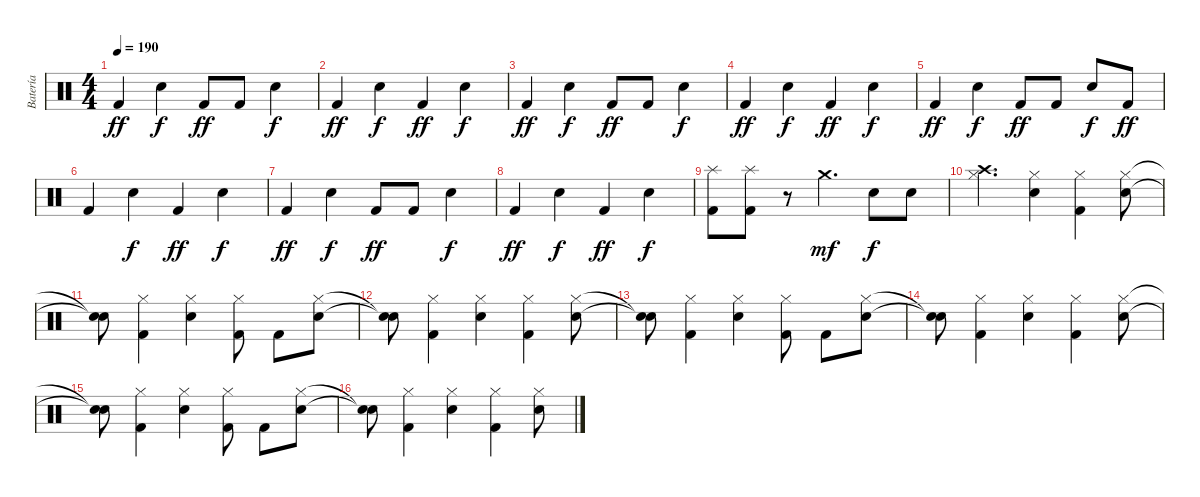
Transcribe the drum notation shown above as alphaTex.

\track ("Batería" "Batería") {instrument percussion}
\staff {score}
\articulation defaults
\ts (4 4)
\tempo 190
\clef neutral
\ks c "Kick (hit) 2".4{dy ff} "Electric Snare (hit)".4{dy f} "Kick (hit) 2".8{dy ff} "Kick (hit) 2".8 "Electric Snare (hit)".4{dy f}
|
"Kick (hit) 2".4{dy ff} "Electric Snare (hit)".4{dy f} "Kick (hit) 2".4{dy ff} "Electric Snare (hit)".4{dy f} |
"Kick (hit) 2".4{dy ff} "Electric Snare (hit)".4{dy f} "Kick (hit) 2".8{dy ff} "Kick (hit) 2".8 "Electric Snare (hit)".4{dy f} |
"Kick (hit) 2".4{dy ff} "Electric Snare (hit)".4{dy f} "Kick (hit) 2".4{dy ff} "Electric Snare (hit)".4{dy f} |
"Kick (hit) 2".4{dy ff} "Electric Snare (hit)".4{dy f} "Kick (hit) 2".8{dy ff} "Kick (hit) 2".8 "Electric Snare (hit)".8{dy f} "Kick (hit) 2".8{dy ff} |
"Kick (hit) 2".4 "Electric Snare (hit)".4{dy f} "Kick (hit) 2".4{dy ff} "Electric Snare (hit)".4{dy f} |
"Kick (hit) 2".4{dy ff} "Electric Snare (hit)".4{dy f} "Kick (hit) 2".8{dy ff} "Kick (hit) 2".8 "Electric Snare (hit)".4{dy f} |
"Kick (hit) 2".4{dy ff} "Electric Snare (hit)".4{dy f} "Kick (hit) 2".4{dy ff} "Electric Snare (hit)".4{dy f} |
("Splash (hit)" "Kick (hit) 2").8 ("Splash (hit)" "Kick (hit) 2").8 r.8 "Crash medium (hit)".4{d dy mf} "Electric Snare (hit)".8{dy f} "Electric Snare (hit)".8 |
("Crash high (hit)" "Hi-Hat (closed)").4{d} ("Electric Snare (hit)" "Hi-Hat (closed)").4 ("Kick (hit) 2" "Hi-Hat (closed)").4 ("Electric Snare (hit)" "Hi-Hat (closed)").8 |
("Snare (hit)"{t} "Snare (hit)"{t}).8 ("Kick (hit) 2" "Hi-Hat (closed)").4 ("Electric Snare (hit)" "Hi-Hat (closed)").4 ("Kick (hit) 2" "Hi-Hat (closed)").8 "Kick (hit) 2".8 ("Electric Snare (hit)" "Hi-Hat (closed)").8 |
("Snare (hit)"{t} "Snare (hit)"{t}).8 ("Kick (hit) 2" "Hi-Hat (closed)").4 ("Electric Snare (hit)" "Hi-Hat (closed)").4 ("Kick (hit) 2" "Hi-Hat (closed)").4 ("Electric Snare (hit)" "Hi-Hat (closed)").8 |
("Snare (hit)"{t} "Snare (hit)"{t}).8 ("Kick (hit) 2" "Hi-Hat (closed)").4 ("Electric Snare (hit)" "Hi-Hat (closed)").4 ("Kick (hit) 2" "Hi-Hat (closed)").8 "Kick (hit) 2".8 ("Electric Snare (hit)" "Hi-Hat (closed)").8 |
("Snare (hit)"{t} "Snare (hit)"{t}).8 ("Kick (hit) 2" "Hi-Hat (closed)").4 ("Electric Snare (hit)" "Hi-Hat (closed)").4 ("Kick (hit) 2" "Hi-Hat (closed)").4 ("Electric Snare (hit)" "Hi-Hat (closed)").8 |
("Snare (hit)"{t} "Snare (hit)"{t}).8 ("Kick (hit) 2" "Hi-Hat (closed)").4 ("Electric Snare (hit)" "Hi-Hat (closed)").4 ("Kick (hit) 2" "Hi-Hat (closed)").8 "Kick (hit) 2".8 ("Electric Snare (hit)" "Hi-Hat (closed)").8 |
("Snare (hit)"{t} "Snare (hit)"{t}).8 ("Kick (hit) 2" "Hi-Hat (closed)").4 ("Electric Snare (hit)" "Hi-Hat (closed)").4 ("Kick (hit) 2" "Hi-Hat (closed)").4 ("Electric Snare (hit)" "Hi-Hat (closed)").8
